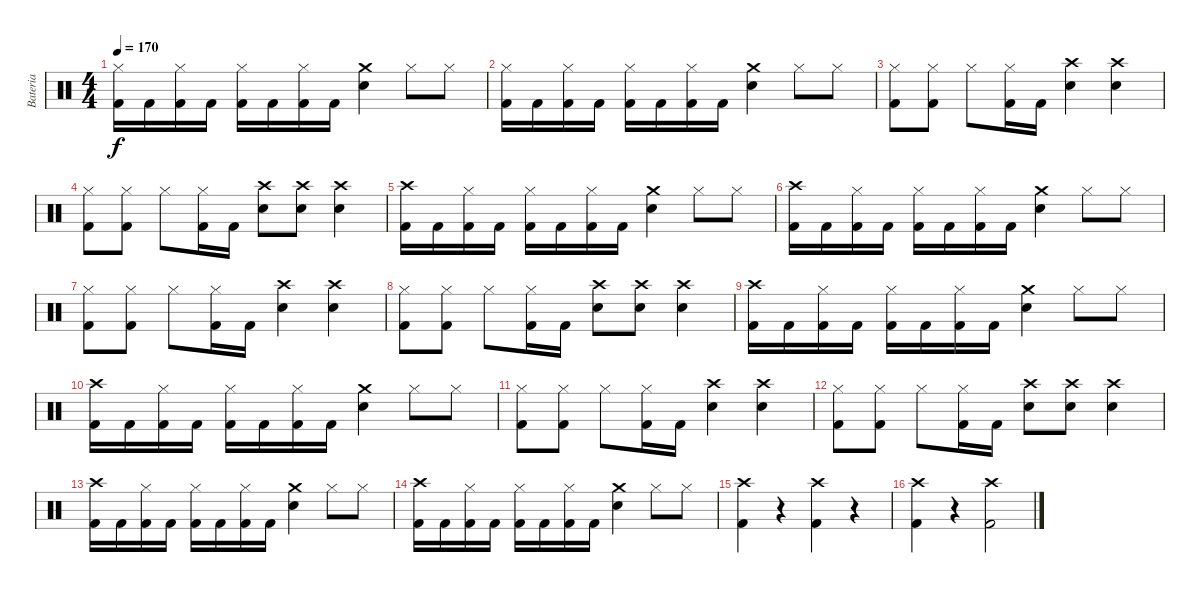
\track ("Bateria" "Bateria") {instrument percussion}
\staff {score}
\articulation defaults
\ts (4 4)
\tempo 170
\clef neutral
\ks c
("Hi-Hat (closed)" "Kick (hit) 2").16{dy f} "Kick (hit) 2".16 ("Hi-Hat (closed)" "Kick (hit) 2").16 "Kick (hit) 2".16 ("Hi-Hat (closed)" "Kick (hit) 2").16 "Kick (hit) 2".16 ("Hi-Hat (closed)" "Kick (hit) 2").16 "Kick (hit) 2".16 ("Crash medium (hit)" "Snare (hit) 2").4 "Hi-Hat (closed)".8 "Hi-Hat (closed)".8 |
("Hi-Hat (closed)" "Kick (hit) 2").16 "Kick (hit) 2".16 ("Hi-Hat (closed)" "Kick (hit) 2").16 "Kick (hit) 2".16 ("Hi-Hat (closed)" "Kick (hit) 2").16 "Kick (hit) 2".16 ("Hi-Hat (closed)" "Kick (hit) 2").16 "Kick (hit) 2".16 ("Crash medium (hit)" "Snare (hit) 2").4 "Hi-Hat (closed)".8 "Hi-Hat (closed)".8 |
("Hi-Hat (closed)" "Kick (hit) 2").8 ("Hi-Hat (closed)" "Kick (hit) 2").8 "Hi-Hat (closed)".8 ("Hi-Hat (closed)" "Kick (hit) 2").16 "Kick (hit) 2".16 ("Crash high (hit)" "Snare (hit) 2").4 ("Crash high (hit)" "Snare (hit) 2").4 |
("Hi-Hat (closed)" "Kick (hit) 2").8 ("Hi-Hat (closed)" "Kick (hit) 2").8 "Hi-Hat (closed)".8 ("Hi-Hat (closed)" "Kick (hit) 2").16 "Kick (hit) 2".16 ("Crash high (hit)" "Snare (hit) 2").8 ("Crash high (hit)" "Snare (hit) 2").8 ("Crash high (hit)" "Snare (hit) 2").4 |
("Crash high (hit)" "Kick (hit) 2").16 "Kick (hit) 2".16 ("Hi-Hat (closed)" "Kick (hit) 2").16 "Kick (hit) 2".16 ("Hi-Hat (closed)" "Kick (hit) 2").16 "Kick (hit) 2".16 ("Hi-Hat (closed)" "Kick (hit) 2").16 "Kick (hit) 2".16 ("Crash medium (hit)" "Snare (hit) 2").4 "Hi-Hat (closed)".8 "Hi-Hat (closed)".8 |
("Crash high (hit)" "Kick (hit) 2").16 "Kick (hit) 2".16 ("Hi-Hat (closed)" "Kick (hit) 2").16 "Kick (hit) 2".16 ("Hi-Hat (closed)" "Kick (hit) 2").16 "Kick (hit) 2".16 ("Hi-Hat (closed)" "Kick (hit) 2").16 "Kick (hit) 2".16 ("Crash medium (hit)" "Snare (hit) 2").4 "Hi-Hat (closed)".8 "Hi-Hat (closed)".8 |
("Hi-Hat (closed)" "Kick (hit) 2").8 ("Hi-Hat (closed)" "Kick (hit) 2").8 "Hi-Hat (closed)".8 ("Hi-Hat (closed)" "Kick (hit) 2").16 "Kick (hit) 2".16 ("Crash high (hit)" "Snare (hit) 2").4 ("Crash high (hit)" "Snare (hit) 2").4 |
("Hi-Hat (closed)" "Kick (hit) 2").8 ("Hi-Hat (closed)" "Kick (hit) 2").8 "Hi-Hat (closed)".8 ("Hi-Hat (closed)" "Kick (hit) 2").16 "Kick (hit) 2".16 ("Crash high (hit)" "Snare (hit) 2").8 ("Crash high (hit)" "Snare (hit) 2").8 ("Crash high (hit)" "Snare (hit) 2").4 |
("Crash high (hit)" "Kick (hit) 2").16 "Kick (hit) 2".16 ("Hi-Hat (closed)" "Kick (hit) 2").16 "Kick (hit) 2".16 ("Hi-Hat (closed)" "Kick (hit) 2").16 "Kick (hit) 2".16 ("Hi-Hat (closed)" "Kick (hit) 2").16 "Kick (hit) 2".16 ("Crash medium (hit)" "Snare (hit) 2").4 "Hi-Hat (closed)".8 "Hi-Hat (closed)".8 |
("Crash high (hit)" "Kick (hit) 2").16 "Kick (hit) 2".16 ("Hi-Hat (closed)" "Kick (hit) 2").16 "Kick (hit) 2".16 ("Hi-Hat (closed)" "Kick (hit) 2").16 "Kick (hit) 2".16 ("Hi-Hat (closed)" "Kick (hit) 2").16 "Kick (hit) 2".16 ("Crash medium (hit)" "Snare (hit) 2").4 "Hi-Hat (closed)".8 "Hi-Hat (closed)".8 |
("Hi-Hat (closed)" "Kick (hit) 2").8 ("Hi-Hat (closed)" "Kick (hit) 2").8 "Hi-Hat (closed)".8 ("Hi-Hat (closed)" "Kick (hit) 2").16 "Kick (hit) 2".16 ("Crash high (hit)" "Snare (hit) 2").4 ("Crash high (hit)" "Snare (hit) 2").4 |
("Hi-Hat (closed)" "Kick (hit) 2").8 ("Hi-Hat (closed)" "Kick (hit) 2").8 "Hi-Hat (closed)".8 ("Hi-Hat (closed)" "Kick (hit) 2").16 "Kick (hit) 2".16 ("Crash high (hit)" "Snare (hit) 2").8 ("Crash high (hit)" "Snare (hit) 2").8 ("Crash high (hit)" "Snare (hit) 2").4 |
("Crash high (hit)" "Kick (hit) 2").16 "Kick (hit) 2".16 ("Hi-Hat (closed)" "Kick (hit) 2").16 "Kick (hit) 2".16 ("Hi-Hat (closed)" "Kick (hit) 2").16 "Kick (hit) 2".16 ("Hi-Hat (closed)" "Kick (hit) 2").16 "Kick (hit) 2".16 ("Crash medium (hit)" "Snare (hit) 2").4 "Hi-Hat (closed)".8 "Hi-Hat (closed)".8 |
("Crash high (hit)" "Kick (hit) 2").16 "Kick (hit) 2".16 ("Hi-Hat (closed)" "Kick (hit) 2").16 "Kick (hit) 2".16 ("Hi-Hat (closed)" "Kick (hit) 2").16 "Kick (hit) 2".16 ("Hi-Hat (closed)" "Kick (hit) 2").16 "Kick (hit) 2".16 ("Crash medium (hit)" "Snare (hit) 2").4 "Hi-Hat (closed)".8 "Hi-Hat (closed)".8 |
("Crash high (hit)" "Kick (hit) 2").4 r.4 ("Crash high (hit)" "Kick (hit) 2").4 r.4 |
("Crash high (hit)" "Kick (hit) 2").4 r.4 ("Crash high (hit)" "Kick (hit) 2").2
